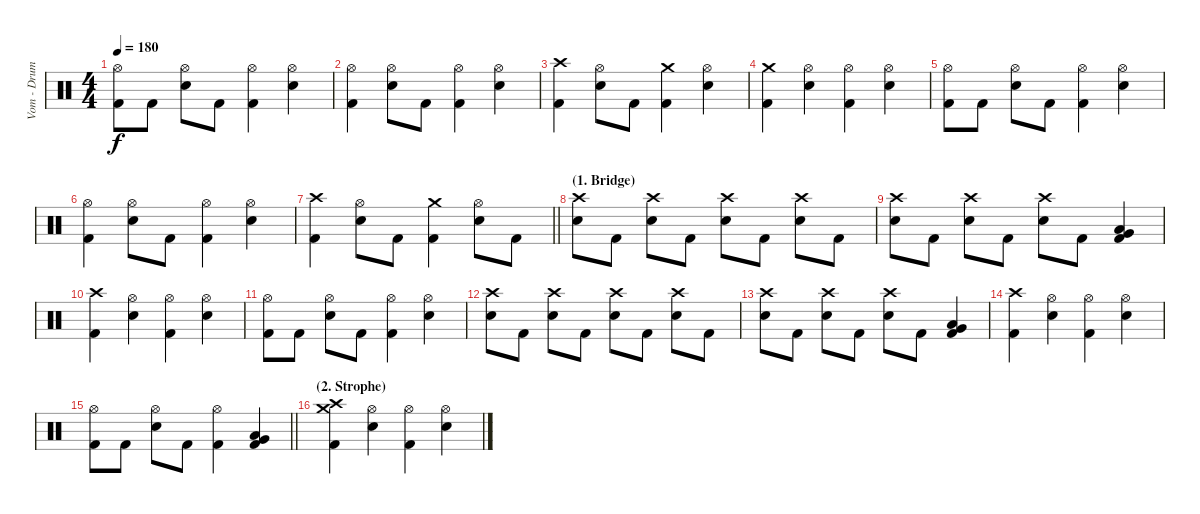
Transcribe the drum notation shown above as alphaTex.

\track ("Vom - Drums" "Vom - Drum") {instrument percussion}
\staff {score}
\articulation defaults
\ts (4 4)
\tempo 180
\clef neutral
\ks c
("Hi-Hat (open)" "Kick (hit) 2").8{dy f} "Kick (hit) 2".8 ("Hi-Hat (open)" "Electric Snare (hit)").8 "Kick (hit) 2".8 ("Hi-Hat (open)" "Kick (hit) 2").4 ("Hi-Hat (open)" "Electric Snare (hit)").4 |
("Hi-Hat (open)" "Kick (hit) 2").4 ("Hi-Hat (open)" "Electric Snare (hit)").8 "Kick (hit) 2".8 ("Hi-Hat (open)" "Kick (hit) 2").4 ("Hi-Hat (open)" "Electric Snare (hit)").4 |
("Crash high (hit)" "Kick (hit) 2").4 ("Hi-Hat (open)" "Electric Snare (hit)").8 "Kick (hit) 2".8 ("Crash medium (hit)" "Kick (hit) 2").4 ("Hi-Hat (open)" "Electric Snare (hit)").4 |
("Crash medium (hit)" "Kick (hit) 2").4 ("Electric Snare (hit)" "Hi-Hat (open)").4 ("Kick (hit) 2" "Hi-Hat (open)").4 ("Electric Snare (hit)" "Hi-Hat (open)").4 |
("Hi-Hat (open)" "Kick (hit) 2").8 "Kick (hit) 2".8 ("Hi-Hat (open)" "Electric Snare (hit)").8 "Kick (hit) 2".8 ("Hi-Hat (open)" "Kick (hit) 2").4 ("Hi-Hat (open)" "Electric Snare (hit)").4 |
("Hi-Hat (open)" "Kick (hit) 2").4 ("Hi-Hat (open)" "Electric Snare (hit)").8 "Kick (hit) 2".8 ("Hi-Hat (open)" "Kick (hit) 2").4 ("Hi-Hat (open)" "Electric Snare (hit)").4 |
\barLineRight lightlight
("Crash high (hit)" "Kick (hit) 2").4 ("Hi-Hat (open)" "Electric Snare (hit)").8 "Kick (hit) 2".8 ("Crash medium (hit)" "Kick (hit) 2").4 ("Hi-Hat (open)" "Electric Snare (hit)").8 "Kick (hit) 2".8 |
\section ("" "(1. Bridge)")
("Crash high (hit)" "Electric Snare (hit)").8 "Kick (hit) 2".8 ("Crash high (hit)" "Electric Snare (hit)").8 "Kick (hit) 2".8 ("Crash high (hit)" "Electric Snare (hit)").8 "Kick (hit) 2".8 ("Crash high (hit)" "Electric Snare (hit)").8 "Kick (hit) 2".8 |
("Crash high (hit)" "Electric Snare (hit)").8 "Kick (hit) 2".8 ("Crash high (hit)" "Electric Snare (hit)").8 "Kick (hit) 2".8 ("Crash high (hit)" "Electric Snare (hit)").8 "Kick (hit) 2".8 ("Low Tom (hit)" "Very Low Tom (hit)" "Kick (hit) 2").4 |
("Kick (hit) 2" "Crash high (hit)").4 ("Electric Snare (hit)" "Hi-Hat (open)").4 ("Kick (hit) 2" "Hi-Hat (open)").4 ("Electric Snare (hit)" "Hi-Hat (open)").4 |
("Hi-Hat (open)" "Kick (hit) 2").8 "Kick (hit) 2".8 ("Hi-Hat (open)" "Electric Snare (hit)").8 "Kick (hit) 2".8 ("Hi-Hat (open)" "Kick (hit) 2").4 ("Hi-Hat (open)" "Electric Snare (hit)").4 |
("Crash high (hit)" "Electric Snare (hit)").8 "Kick (hit) 2".8 ("Crash high (hit)" "Electric Snare (hit)").8 "Kick (hit) 2".8 ("Crash high (hit)" "Electric Snare (hit)").8 "Kick (hit) 2".8 ("Crash high (hit)" "Electric Snare (hit)").8 "Kick (hit) 2".8 |
("Crash high (hit)" "Electric Snare (hit)").8 "Kick (hit) 2".8 ("Crash high (hit)" "Electric Snare (hit)").8 "Kick (hit) 2".8 ("Crash high (hit)" "Electric Snare (hit)").8 "Kick (hit) 2".8 ("Low Tom (hit)" "Very Low Tom (hit)" "Kick (hit) 2").4 |
("Kick (hit) 2" "Crash high (hit)").4 ("Electric Snare (hit)" "Hi-Hat (open)").4 ("Kick (hit) 2" "Hi-Hat (open)").4 ("Electric Snare (hit)" "Hi-Hat (open)").4 |
\barLineRight lightlight
("Hi-Hat (open)" "Kick (hit) 2").8 "Kick (hit) 2".8 ("Hi-Hat (open)" "Electric Snare (hit)").8 "Kick (hit) 2".8 ("Hi-Hat (open)" "Kick (hit) 2").4 ("Low Tom (hit)" "Very Low Tom (hit)" "Kick (hit) 2").4 |
\section ("" "(2. Strophe)")
("Crash high (hit)" "Crash medium (hit)" "Kick (hit) 2").4 ("Hi-Hat (open)" "Electric Snare (hit)").4 ("Hi-Hat (open)" "Kick (hit) 2").4 ("Hi-Hat (open)" "Electric Snare (hit)").4
